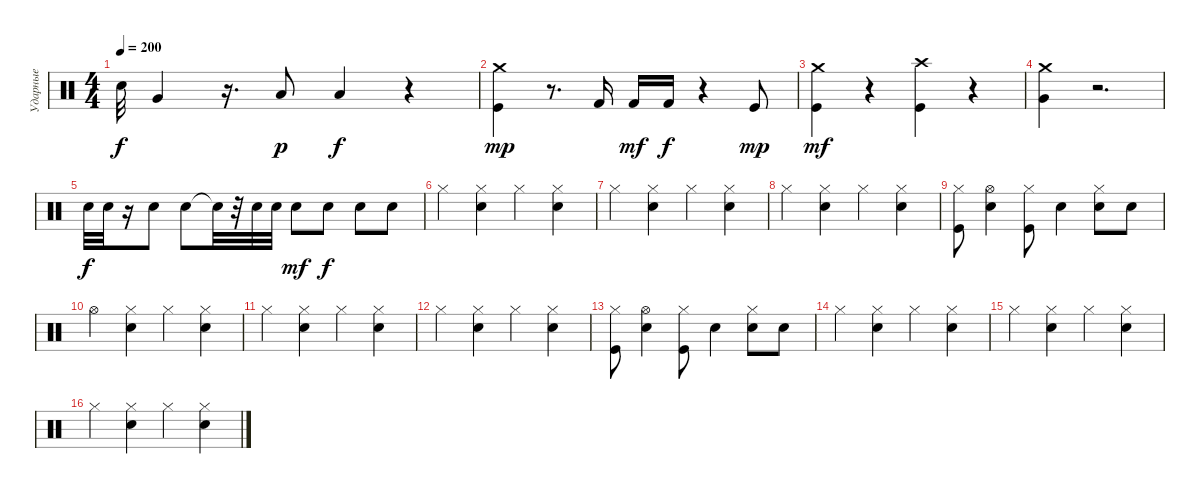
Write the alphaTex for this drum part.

\track ("Ударные" "Ударные") {instrument percussion}
\staff {score}
\articulation defaults
\ts (4 4)
\tempo 200
\clef neutral
\ks c "Snare (hit) 2".32{dy f} "Very Low Tom (hit)".4
r.16{d} "Low Tom (hit)".8{dy p} "Low Floor Tom (hit)".4{dy f} r.4 |
("Crash medium (hit)" "Kick (hit)").4{dy mp} r.8{d} "Kick (hit) 2".16 "Kick (hit) 2".16{dy mf} "Kick (hit) 2".16{dy f} r.4 "Kick (hit)".8{dy mp} |
("Kick (hit)" "Crash medium (hit)").4{dy mf} r.4 ("Crash high (hit)" "Kick (hit)").4 r.4 |
("Crash medium (hit)" "Very Low Tom (hit)").4 r.2{d} |
"Electric Snare (hit)".32{dy f} "Electric Snare (hit)".32 r.16 "Electric Snare (hit)".8 "Electric Snare (hit)".8 "Snare (hit)"{t}.32 r.32 "Electric Snare (hit)".32 "Electric Snare (hit)".32 "Electric Snare (hit)".8{dy mf} "Electric Snare (hit)".8{dy f} "Electric Snare (hit)".8 "Electric Snare (hit)".8 |
"Hi-Hat (closed)".4 ("Snare (hit) 2" "Hi-Hat (closed)").4 "Hi-Hat (closed)".4 ("Snare (hit) 2" "Hi-Hat (closed)").4 |
"Hi-Hat (closed)".4 ("Snare (hit) 2" "Hi-Hat (closed)").4 "Hi-Hat (closed)".4 ("Snare (hit) 2" "Hi-Hat (closed)").4 |
"Hi-Hat (closed)".4 ("Snare (hit) 2" "Hi-Hat (closed)").4 "Hi-Hat (closed)".4 ("Snare (hit) 2" "Hi-Hat (closed)").4 |
("Kick (hit)" "Hi-Hat (closed)").8 ("Hi-Hat (open)" "Electric Snare (hit)").4 ("Kick (hit)" "Hi-Hat (closed)").8 "Electric Snare (hit)".4 ("Electric Snare (hit)" "Hi-Hat (closed)").8 "Electric Snare (hit)".8 |
"Hi-Hat (open)".4 ("Snare (hit) 2" "Hi-Hat (closed)").4 "Hi-Hat (closed)".4 ("Snare (hit) 2" "Hi-Hat (closed)").4 |
"Hi-Hat (closed)".4 ("Snare (hit) 2" "Hi-Hat (closed)").4 "Hi-Hat (closed)".4 ("Snare (hit) 2" "Hi-Hat (closed)").4 |
"Hi-Hat (closed)".4 ("Snare (hit) 2" "Hi-Hat (closed)").4 "Hi-Hat (closed)".4 ("Snare (hit) 2" "Hi-Hat (closed)").4 |
("Kick (hit)" "Hi-Hat (closed)").8 ("Hi-Hat (open)" "Electric Snare (hit)").4 ("Kick (hit)" "Hi-Hat (closed)").8 "Electric Snare (hit)".4 ("Electric Snare (hit)" "Hi-Hat (closed)").8 "Electric Snare (hit)".8 |
"Hi-Hat (closed)".4 ("Snare (hit) 2" "Hi-Hat (closed)").4 "Hi-Hat (closed)".4 ("Snare (hit) 2" "Hi-Hat (closed)").4 |
"Hi-Hat (closed)".4 ("Snare (hit) 2" "Hi-Hat (closed)").4 "Hi-Hat (closed)".4 ("Snare (hit) 2" "Hi-Hat (closed)").4 |
"Hi-Hat (closed)".4 ("Snare (hit) 2" "Hi-Hat (closed)").4 "Hi-Hat (closed)".4 ("Snare (hit) 2" "Hi-Hat (closed)").4
